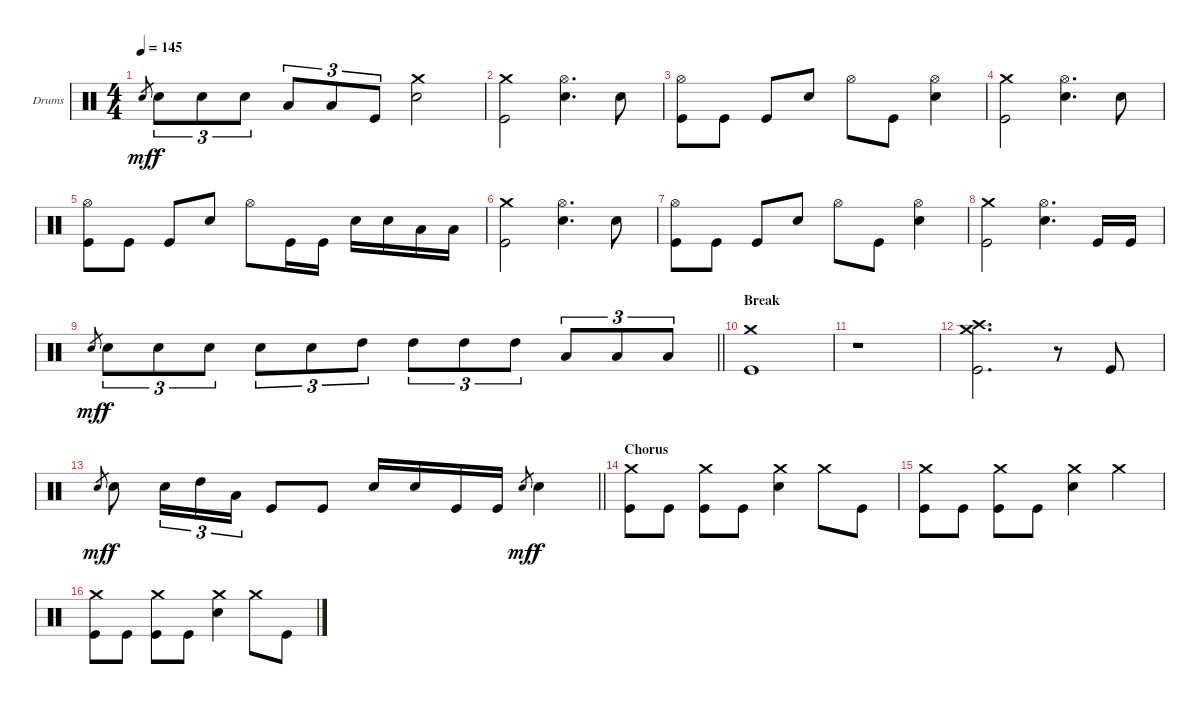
\bracketExtendMode groupsimilarinstruments
\firstSystemTrackNameOrientation horizontal
\otherSystemsTrackNameOrientation horizontal
\track ("Drumkit" "Drums") {instrument percussion}
\staff {score}
\articulation defaults
\ts (4 4)
\tempo 145
\clef neutral
\ks c "Snare (hit) 2".8{gr dy mf} "Snare (hit) 2".8{tu (3 2) dy f} "Snare (hit) 2".8{tu (3 2)} "Snare (hit) 2".8{tu (3 2)} "Low Tom (hit)".8{tu (3 2)} "Low Tom (hit)".8{tu (3 2)} "Kick (hit)".8{tu (3 2)}
("Crash medium (hit)" "Snare (hit) 2").2 |
("Crash medium (hit)" "Kick (hit)").2 ("Hi-Hat (open)" "Snare (hit) 2").4{d} "Snare (hit) 2".8 |
("Hi-Hat (open)" "Kick (hit)").8 "Kick (hit)".8 "Kick (hit)".8 "Snare (hit) 2".8 "Hi-Hat (open)".8 "Kick (hit)".8 ("Hi-Hat (open)" "Snare (hit) 2").4 |
("Crash medium (hit)" "Kick (hit)").2 ("Hi-Hat (open)" "Snare (hit) 2").4{d} "Snare (hit) 2".8 |
("Hi-Hat (open)" "Kick (hit)").8 "Kick (hit)".8 "Kick (hit)".8 "Snare (hit) 2".8 "Hi-Hat (open)".8 "Kick (hit)".16 "Kick (hit)".16 "Snare (hit) 2".16 "Snare (hit) 2".16 "Low Tom (hit)".16 "Low Tom (hit)".16 |
("Crash medium (hit)" "Kick (hit)").2 ("Hi-Hat (open)" "Snare (hit) 2").4{d} "Snare (hit) 2".8 |
("Hi-Hat (open)" "Kick (hit)").8 "Kick (hit)".8 "Kick (hit)".8 "Snare (hit) 2".8 "Hi-Hat (open)".8 "Kick (hit)".8 ("Hi-Hat (open)" "Snare (hit) 2").4 |
("Crash medium (hit)" "Kick (hit)").2 ("Hi-Hat (open)" "Snare (hit) 2").4{d} "Kick (hit)".16 "Kick (hit)".16 |
\barLineRight lightlight "Snare (hit) 2".8{gr dy mf} "Snare (hit) 2".8{tu (3 2) dy f} "Snare (hit) 2".8{tu (3 2)} "Snare (hit) 2".8{tu (3 2)} "Snare (hit) 2".8{tu (3 2)} "Snare (hit) 2".8{tu (3 2)} "High Tom (hit)".8{tu (3 2)} "High Tom (hit)".8{tu (3 2)} "High Tom (hit)".8{tu (3 2)} "High Tom (hit)".8{tu (3 2)} "Low Tom (hit)".8{tu (3 2)} "Low Tom (hit)".8{tu (3 2)} "Low Tom (hit)".8{tu (3 2)}
|
\section ("" "Break")
("Crash medium (hit)" "Kick (hit)").1 |
r.1 |
("Crash medium (hit)" "Crash high (hit)" "Kick (hit)").2{d} r.8 "Kick (hit)".8 |
\barLineRight lightlight "Snare (hit) 2".8{gr dy mf} "Snare (hit) 2".8{dy f} "Snare (hit) 2".16{tu (3 2)} "High Tom (hit)".16{tu (3 2)} "Low Tom (hit)".16{tu (3 2)} "Kick (hit)".8 "Kick (hit)".8 "Snare (hit) 2".16 "Snare (hit) 2".16 "Kick (hit)".16 "Kick (hit)".16 "Snare (hit) 2".8{gr dy mf} "Snare (hit) 2".4{dy f}
|
\section ("" "Chorus")
("Crash medium (hit)" "Kick (hit)").8 "Kick (hit)".8 ("Crash medium (hit)" "Kick (hit)").8 "Kick (hit)".8 ("Crash medium (hit)" "Snare (hit) 2").4 "Crash medium (hit)".8 "Kick (hit)".8 |
("Crash medium (hit)" "Kick (hit)").8 "Kick (hit)".8 ("Crash medium (hit)" "Kick (hit)").8 "Kick (hit)".8 ("Crash medium (hit)" "Snare (hit) 2").4 "Crash medium (hit)".4 |
("Crash medium (hit)" "Kick (hit)").8 "Kick (hit)".8 ("Crash medium (hit)" "Kick (hit)").8 "Kick (hit)".8 ("Crash medium (hit)" "Snare (hit) 2").4 "Crash medium (hit)".8 "Kick (hit)".8
